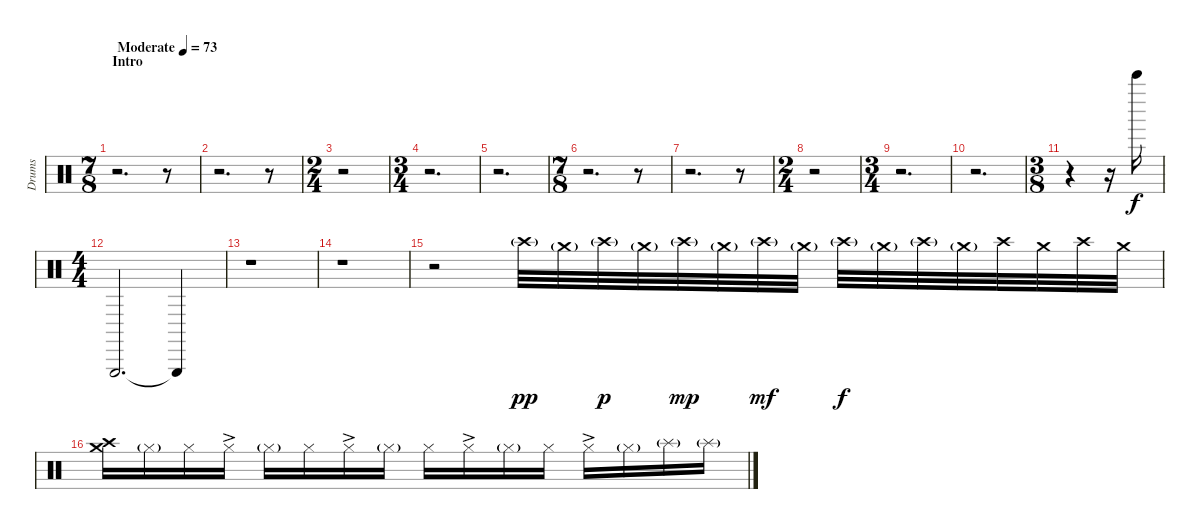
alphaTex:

\track ("Drums" "Drums") {instrument percussion}
\staff {score}
\articulation defaults
\ts (7 8)
\section ("" "Intro")
\tempo (73 "Moderate")
\clef neutral
\ks c
r.2{d dy f} r.8 |
r.2{d} r.8 |
\ts (2 4)
r.2 |
\ts (3 4)
r.2{d} |
r.2{d} |
\ts (7 8)
r.2{d} r.8 |
r.2{d} r.8 |
\ts (2 4)
r.2 |
\ts (3 4)
r.2{d} |
r.2{d} |
\ts (3 8)
r.4 r.16 "Bell Tree (hit)".16 |
\ts (4 4)
"Triangle (hit)".2{d} "Triangle (hit)"{t}.4 |
r.1 |
r.1 |
r.2 "Crash high (hit)"{g}.32{dy pp} "Crash medium (hit)"{g}.32 "Crash high (hit)"{g}.32{dy p} "Crash medium (hit)"{g}.32 "Crash high (hit)"{g}.32{dy mp} "Crash medium (hit)"{g}.32 "Crash high (hit)"{g}.32{dy mf} "Crash medium (hit)"{g}.32 "Crash high (hit)"{g}.32{dy f} "Crash medium (hit)"{g}.32 "Crash high (hit)"{g}.32 "Crash medium (hit)"{g}.32 "Crash high (hit)".32 "Crash medium (hit)".32 "Crash high (hit)".32 "Crash medium (hit)".32 |
("Crash high (hit)" "Crash medium (hit)").16 "Hi-Hat (closed)"{g}.16 "Hi-Hat (closed)".16 "Hi-Hat (closed)"{ac}.16 "Hi-Hat (closed)"{g}.16 "Hi-Hat (closed)".16 "Hi-Hat (closed)"{ac}.16 "Hi-Hat (closed)"{g}.16 "Hi-Hat (closed)".16 "Hi-Hat (closed)"{ac}.16 "Hi-Hat (closed)"{g}.16 "Hi-Hat (closed)".16 "Hi-Hat (closed)"{ac}.16 "Hi-Hat (closed)"{g}.16 "Splash (hit)"{g}.16 "Splash (hit)"{g}.16
